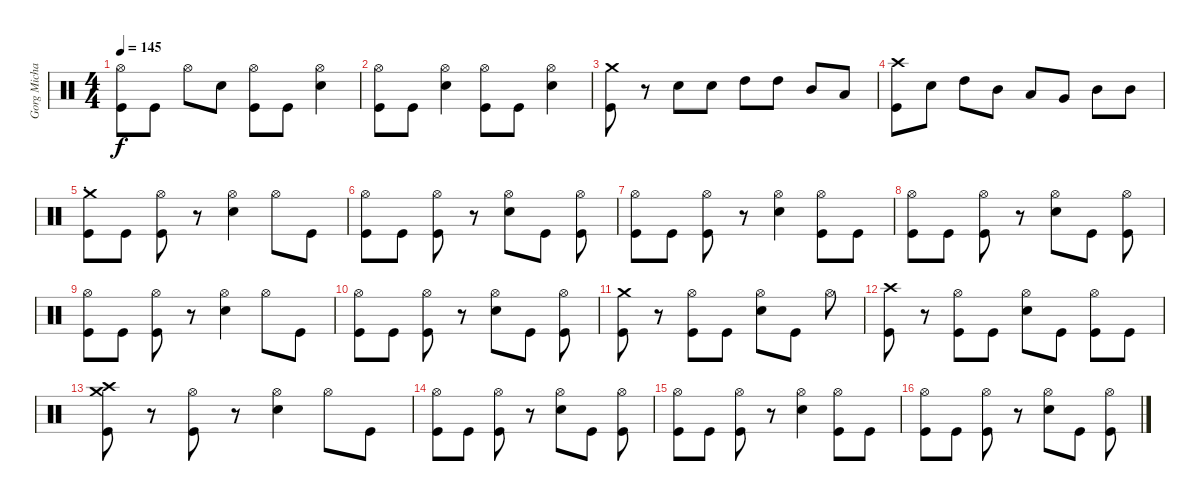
\track ("Gorg Michael" "Gorg Micha") {instrument percussion}
\staff {score}
\articulation defaults
\ts (4 4)
\tempo 145
\clef neutral
\ks c
("Hi-Hat (open)" "Kick (hit)").8{dy f} "Kick (hit)".8 "Hi-Hat (open)".8 "Snare (hit) 2".8 ("Hi-Hat (open)" "Kick (hit)").8 "Kick (hit)".8 ("Hi-Hat (open)" "Snare (hit) 2").4 |
("Hi-Hat (open)" "Kick (hit)").8 "Kick (hit)".8 ("Hi-Hat (open)" "Snare (hit) 2").4 ("Hi-Hat (open)" "Kick (hit)").8 "Kick (hit)".8 ("Hi-Hat (open)" "Snare (hit) 2").4 |
("Crash medium (hit)" "Kick (hit)").8 r.8 "Snare (hit) 2".8 "Snare (hit) 2".8 "High Tom (hit)".8 "High Tom (hit)".8 "Mid Tom (hit)".8 "Low Tom (hit)".8 |
("Crash high (hit)" "Kick (hit)").8 "Snare (hit) 2".8 "High Tom (hit)".8 "Mid Tom (hit)".8 "Low Tom (hit)".8 "Very Low Tom (hit)".8 "Mid Tom (hit)".8 "Mid Tom (hit)".8 |
\section ("" ".")
("Crash medium (hit)" "Kick (hit)").8 "Kick (hit)".8 ("Hi-Hat (open)" "Kick (hit)").8 r.8 ("Hi-Hat (open)" "Snare (hit) 2").4 "Hi-Hat (open)".8 "Kick (hit)".8 |
("Hi-Hat (open)" "Kick (hit)").8 "Kick (hit)".8 ("Hi-Hat (open)" "Kick (hit)").8 r.8 ("Hi-Hat (open)" "Snare (hit) 2").8 "Kick (hit)".8 ("Hi-Hat (open)" "Kick (hit)").8 |
("Hi-Hat (open)" "Kick (hit)").8 "Kick (hit)".8 ("Hi-Hat (open)" "Kick (hit)").8 r.8 ("Hi-Hat (open)" "Snare (hit) 2").4 ("Hi-Hat (open)" "Kick (hit)").8 "Kick (hit)".8 |
("Hi-Hat (open)" "Kick (hit)").8 "Kick (hit)".8 ("Hi-Hat (open)" "Kick (hit)").8 r.8 ("Hi-Hat (open)" "Snare (hit) 2").8 "Kick (hit)".8 ("Hi-Hat (open)" "Kick (hit)").8 |
("Hi-Hat (open)" "Kick (hit)").8 "Kick (hit)".8 ("Hi-Hat (open)" "Kick (hit)").8 r.8 ("Hi-Hat (open)" "Snare (hit) 2").4 "Hi-Hat (open)".8 "Kick (hit)".8 |
("Hi-Hat (open)" "Kick (hit)").8 "Kick (hit)".8 ("Hi-Hat (open)" "Kick (hit)").8 r.8 ("Hi-Hat (open)" "Snare (hit) 2").8 "Kick (hit)".8 ("Hi-Hat (open)" "Kick (hit)").8 |
("Crash medium (hit)" "Kick (hit)").8 r.8 ("Hi-Hat (open)" "Kick (hit)").8 "Kick (hit)".8 ("Hi-Hat (open)" "Snare (hit) 2").8 "Kick (hit)".8 "Hi-Hat (open)".8 |
("Crash high (hit)" "Kick (hit)").8 r.8 ("Hi-Hat (open)" "Kick (hit)").8 "Kick (hit)".8 ("Hi-Hat (open)" "Snare (hit) 2").8 "Kick (hit)".8 ("Hi-Hat (open)" "Kick (hit)").8 "Kick (hit)".8 |
("Crash medium (hit)" "Crash high (hit)" "Kick (hit)").8 r.8 ("Hi-Hat (open)" "Kick (hit)").8 r.8 ("Hi-Hat (open)" "Snare (hit) 2").4 "Hi-Hat (open)".8 "Kick (hit)".8 |
("Hi-Hat (open)" "Kick (hit)").8 "Kick (hit)".8 ("Hi-Hat (open)" "Kick (hit)").8 r.8 ("Hi-Hat (open)" "Snare (hit) 2").8 "Kick (hit)".8 ("Hi-Hat (open)" "Kick (hit)").8 |
("Hi-Hat (open)" "Kick (hit)").8 "Kick (hit)".8 ("Hi-Hat (open)" "Kick (hit)").8 r.8 ("Hi-Hat (open)" "Snare (hit) 2").4 ("Hi-Hat (open)" "Kick (hit)").8 "Kick (hit)".8 |
("Hi-Hat (open)" "Kick (hit)").8 "Kick (hit)".8 ("Hi-Hat (open)" "Kick (hit)").8 r.8 ("Hi-Hat (open)" "Snare (hit) 2").8 "Kick (hit)".8 ("Hi-Hat (open)" "Kick (hit)").8
